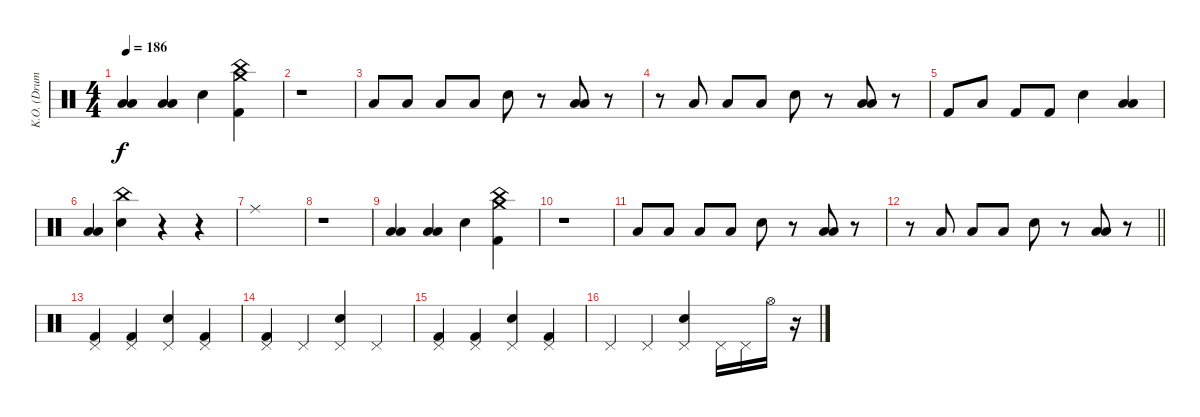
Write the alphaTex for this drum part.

\track ("K.O. (Drums)" "K.O. (Drum") {instrument percussion}
\staff {score}
\articulation defaults
\ts (4 4)
\tempo 186
\clef neutral
\ks c
("Low Floor Tom (hit)" "Low Tom (hit)").4{dy f} ("Low Floor Tom (hit)" "Low Tom (hit)").4 "Electric Snare (hit)".4 ("China (hit)" "Crash medium (hit)" "Kick (hit) 2").4 |
r.1 |
"Low Floor Tom (hit)".8 "Low Tom (hit)".8 "Low Floor Tom (hit)".8 "Low Floor Tom (hit)".8 "Electric Snare (hit)".8 r.8 ("Low Floor Tom (hit)" "Low Tom (hit)").8 r.8 |
r.8 "Low Floor Tom (hit)".8 "Low Tom (hit)".8 "Low Floor Tom (hit)".8 "Electric Snare (hit)".8 r.8 ("Low Floor Tom (hit)" "Low Tom (hit)").8 r.8 |
"Kick (hit) 2".8 "Low Floor Tom (hit)".8 "Kick (hit) 2".8 "Kick (hit) 2".8 "Electric Snare (hit)".4 ("Low Floor Tom (hit)" "Low Tom (hit)").4 |
("Low Floor Tom (hit)" "Low Tom (hit)").4 ("China (hit)" "Electric Snare (hit)").4 r.4 r.4 |
"Ride (middle)".1 |
r.1 |
("Low Floor Tom (hit)" "Low Tom (hit)").4 ("Low Floor Tom (hit)" "Low Tom (hit)").4 "Electric Snare (hit)".4 ("China (hit)" "Crash medium (hit)" "Kick (hit) 2").4 |
r.1 |
"Low Floor Tom (hit)".8 "Low Tom (hit)".8 "Low Floor Tom (hit)".8 "Low Floor Tom (hit)".8 "Electric Snare (hit)".8 r.8 ("Low Floor Tom (hit)" "Low Tom (hit)").8 r.8 |
\barLineRight lightlight
r.8 "Low Floor Tom (hit)".8 "Low Tom (hit)".8 "Low Floor Tom (hit)".8 "Electric Snare (hit)".8 r.8 ("Low Floor Tom (hit)" "Low Tom (hit)").8 r.8 |
("Pedal Hi-Hat (hit)" "Kick (hit) 2").4 ("Pedal Hi-Hat (hit)" "Kick (hit) 2").4 ("Pedal Hi-Hat (hit)" "Electric Snare (hit)").4 ("Pedal Hi-Hat (hit)" "Kick (hit) 2").4 |
("Pedal Hi-Hat (hit)" "Kick (hit) 2").4 "Pedal Hi-Hat (hit)".4 ("Pedal Hi-Hat (hit)" "Electric Snare (hit)").4 "Pedal Hi-Hat (hit)".4 |
("Pedal Hi-Hat (hit)" "Kick (hit) 2").4 ("Pedal Hi-Hat (hit)" "Kick (hit) 2").4 ("Pedal Hi-Hat (hit)" "Electric Snare (hit)").4 ("Pedal Hi-Hat (hit)" "Kick (hit) 2").4 |
"Pedal Hi-Hat (hit)".4 "Pedal Hi-Hat (hit)".4 ("Pedal Hi-Hat (hit)" "Electric Snare (hit)").4 "Pedal Hi-Hat (hit)".16 "Pedal Hi-Hat (hit)".16 "Hi-Hat (open)".16 r.16
